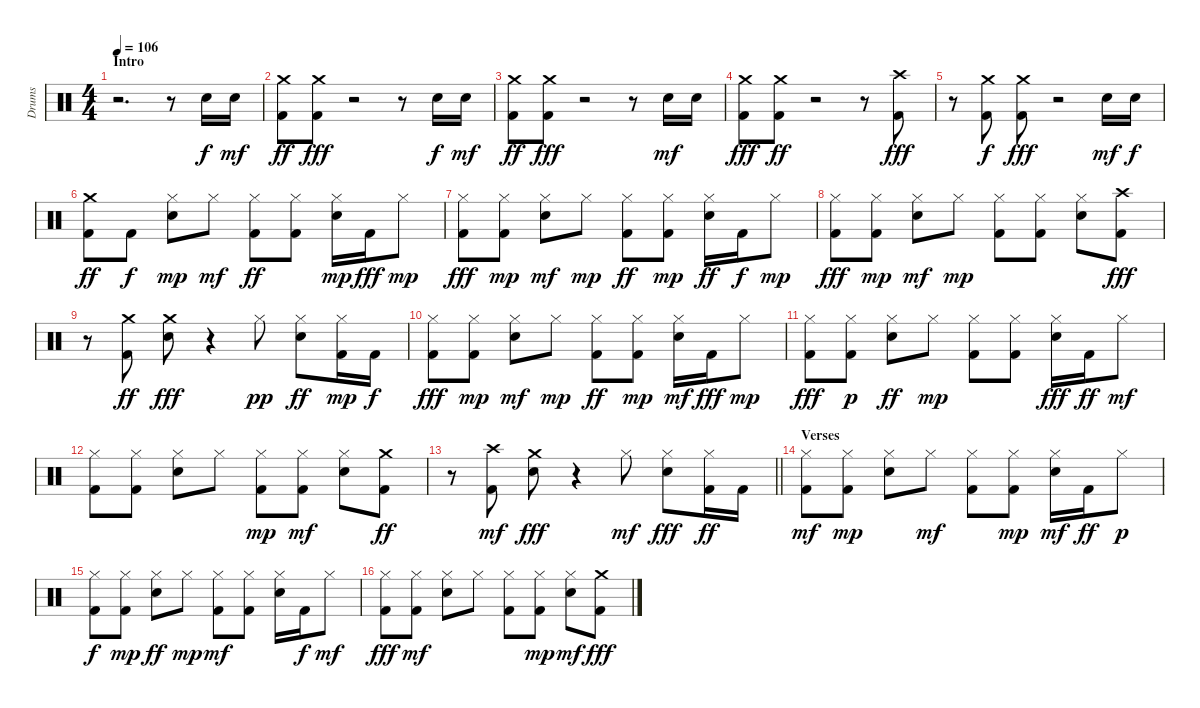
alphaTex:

\track ("Drums" "Drums") {instrument percussion}
\staff {score}
\articulation defaults
\ts (4 4)
\section ("" "Intro")
\tempo 106
\clef neutral
\ks c
r.2{d dy f} r.8 "Snare (hit) 2".16 "Snare (hit) 2".16{dy mf} |
("Kick (hit) 2" "Crash medium (hit)").8{dy ff} ("Crash medium (hit)" "Kick (hit) 2").8{dy fff} r.2 r.8 "Snare (hit) 2".16{dy f} "Snare (hit) 2".16{dy mf} |
("Crash medium (hit)" "Kick (hit) 2").8{dy ff} ("Crash medium (hit)" "Kick (hit) 2").8{dy fff} r.2 r.8 "Snare (hit) 2".16{dy mf} "Snare (hit) 2".16 |
("Kick (hit) 2" "Crash medium (hit)").8{dy fff} ("Kick (hit) 2" "Crash medium (hit)").8{dy ff} r.2 r.8 ("Crash high (hit)" "Kick (hit) 2").8{dy fff} |
r.8 ("Crash medium (hit)" "Kick (hit) 2").8{dy f} ("Kick (hit) 2" "Crash medium (hit)").8{dy fff} r.2 "Snare (hit) 2".16{dy mf} "Snare (hit) 2".16{dy f} |
("Kick (hit) 2" "Crash medium (hit)").8{dy ff} "Kick (hit) 2".8{dy f} ("Snare (hit) 2" "Hi-Hat (closed)").8{dy mp} "Hi-Hat (closed)".8{dy mf} ("Hi-Hat (closed)" "Kick (hit) 2").8{dy ff} ("Hi-Hat (closed)" "Kick (hit) 2").8 ("Snare (hit) 2" "Hi-Hat (closed)").16{dy mp} "Kick (hit) 2".16{dy fff} "Hi-Hat (closed)".8{dy mp} |
("Kick (hit) 2" "Hi-Hat (closed)").8{dy fff} ("Kick (hit) 2" "Hi-Hat (closed)").8{dy mp} ("Snare (hit) 2" "Hi-Hat (closed)").8{dy mf} "Hi-Hat (closed)".8{dy mp} ("Hi-Hat (closed)" "Kick (hit) 2").8{dy ff} ("Hi-Hat (closed)" "Kick (hit) 2").8{dy mp} ("Snare (hit) 2" "Hi-Hat (closed)").16{dy ff} "Kick (hit) 2".16{dy f} "Hi-Hat (closed)".8{dy mp} |
("Kick (hit) 2" "Hi-Hat (closed)").8{dy fff} ("Kick (hit) 2" "Hi-Hat (closed)").8{dy mp} ("Snare (hit) 2" "Hi-Hat (closed)").8{dy mf} "Hi-Hat (closed)".8{dy mp} ("Kick (hit) 2" "Hi-Hat (closed)").8 ("Kick (hit) 2" "Hi-Hat (closed)").8 ("Snare (hit) 2" "Hi-Hat (closed)").8 ("Kick (hit) 2" "Crash high (hit)").8{dy fff} |
r.8 ("Kick (hit) 2" "Crash medium (hit)").8{dy ff} ("Crash medium (hit)" "Snare (hit) 2").8{dy fff} r.4 "Hi-Hat (closed)".8{dy pp} ("Snare (hit) 2" "Hi-Hat (closed)").8{dy ff} ("Kick (hit) 2" "Hi-Hat (closed)").16{dy mp} "Kick (hit) 2".16{dy f} |
("Kick (hit) 2" "Hi-Hat (closed)").8{dy fff} ("Kick (hit) 2" "Hi-Hat (closed)").8{dy mp} ("Snare (hit) 2" "Hi-Hat (closed)").8{dy mf} "Hi-Hat (closed)".8{dy mp} ("Hi-Hat (closed)" "Kick (hit) 2").8{dy ff} ("Kick (hit) 2" "Hi-Hat (closed)").8{dy mp} ("Snare (hit) 2" "Hi-Hat (closed)").16{dy mf} "Kick (hit) 2".16{dy fff} "Hi-Hat (closed)".8{dy mp} |
("Hi-Hat (closed)" "Kick (hit) 2").8{dy fff} ("Hi-Hat (closed)" "Kick (hit) 2").8{dy p} ("Hi-Hat (closed)" "Snare (hit) 2").8{dy ff} "Hi-Hat (closed)".8{dy mp} ("Kick (hit) 2" "Hi-Hat (closed)").8 ("Kick (hit) 2" "Hi-Hat (closed)").8 ("Snare (hit) 2" "Hi-Hat (closed)").16{dy fff} "Kick (hit) 2".16{dy ff} "Hi-Hat (closed)".8{dy mf} |
("Kick (hit) 2" "Hi-Hat (closed)").8 ("Kick (hit) 2" "Hi-Hat (closed)").8 ("Snare (hit) 2" "Hi-Hat (closed)").8 "Hi-Hat (closed)".8 ("Hi-Hat (closed)" "Kick (hit) 2").8{dy mp} ("Hi-Hat (closed)" "Kick (hit) 2").8{dy mf} ("Snare (hit) 2" "Hi-Hat (closed)").8 ("Kick (hit) 2" "Crash medium (hit)").8{dy ff} |
\barLineRight lightlight
r.8 ("Kick (hit) 2" "Crash high (hit)").8{dy mf} ("Crash medium (hit)" "Snare (hit) 2").8{dy fff} r.4 "Hi-Hat (closed)".8{dy mf} ("Snare (hit) 2" "Hi-Hat (closed)").8{dy fff} ("Kick (hit) 2" "Hi-Hat (closed)").16{dy ff} "Kick (hit) 2".16 |
\section ("" "Verses")
("Kick (hit) 2" "Hi-Hat (closed)").8{dy mf} ("Kick (hit) 2" "Hi-Hat (closed)").8{dy mp} ("Snare (hit) 2" "Hi-Hat (closed)").8 "Hi-Hat (closed)".8{dy mf} ("Hi-Hat (closed)" "Kick (hit) 2").8 ("Hi-Hat (closed)" "Kick (hit) 2").8{dy mp} ("Hi-Hat (closed)" "Snare (hit) 2").16{dy mf} "Kick (hit) 2".16{dy ff} "Hi-Hat (closed)".8{dy p} |
("Hi-Hat (closed)" "Kick (hit) 2").8{dy f} ("Kick (hit) 2" "Hi-Hat (closed)").8{dy mp} ("Snare (hit) 2" "Hi-Hat (closed)").8{dy ff} "Hi-Hat (closed)".8{dy mp} ("Kick (hit) 2" "Hi-Hat (closed)").8{dy mf} ("Kick (hit) 2" "Hi-Hat (closed)").8 ("Snare (hit) 2" "Hi-Hat (closed)").16 "Kick (hit) 2".16{dy f} "Hi-Hat (closed)".8{dy mf} |
("Kick (hit) 2" "Hi-Hat (closed)").8{dy fff} ("Kick (hit) 2" "Hi-Hat (closed)").8{dy mf} ("Snare (hit) 2" "Hi-Hat (closed)").8 "Hi-Hat (closed)".8 ("Kick (hit) 2" "Hi-Hat (closed)").8 ("Kick (hit) 2" "Hi-Hat (closed)").8{dy mp} ("Snare (hit) 2" "Hi-Hat (closed)").8{dy mf} ("Kick (hit) 2" "Crash medium (hit)").8{dy fff}
